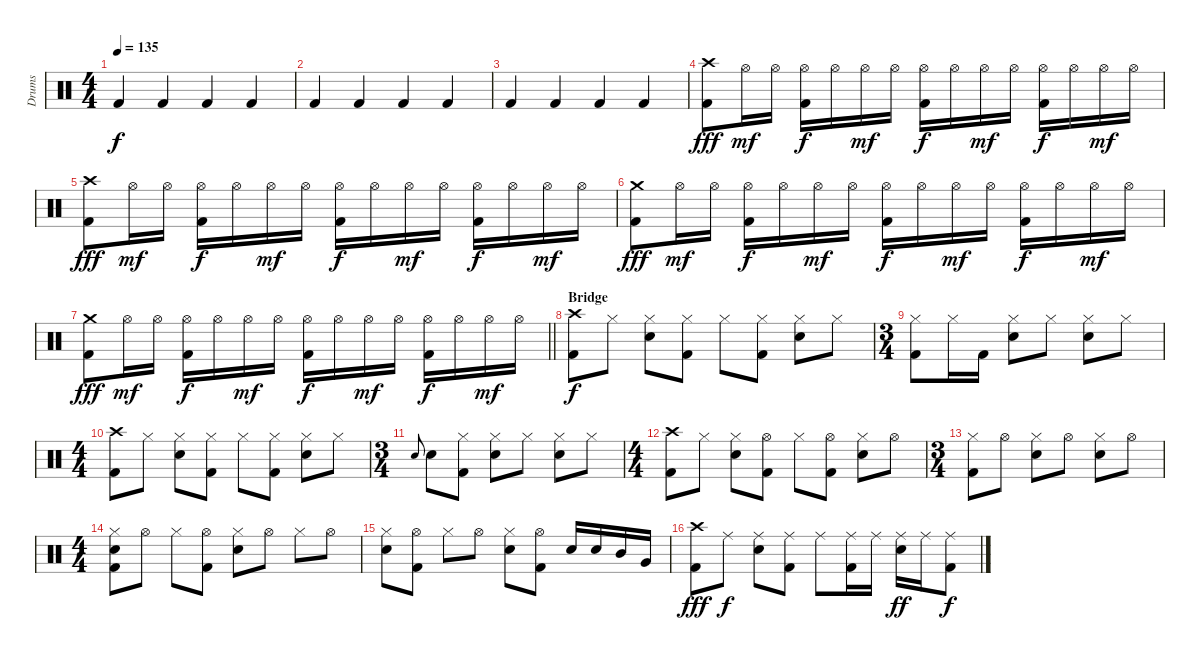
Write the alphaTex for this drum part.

\track ("Drums" "Drums") {instrument percussion}
\staff {score}
\articulation defaults
\ts (4 4)
\tempo 135
\clef neutral
\ks c "Kick (hit) 2".4{dy f} "Kick (hit) 2".4 "Kick (hit) 2".4 "Kick (hit) 2".4
|
"Kick (hit) 2".4 "Kick (hit) 2".4 "Kick (hit) 2".4 "Kick (hit) 2".4 |
"Kick (hit) 2".4 "Kick (hit) 2".4 "Kick (hit) 2".4 "Kick (hit) 2".4 |
("Crash high (hit)" "Kick (hit) 2").8{dy fff} "Hi-Hat (open)".16{dy mf} "Hi-Hat (open)".16 ("Hi-Hat (open)" "Kick (hit) 2").16{dy f} "Hi-Hat (open)".16 "Hi-Hat (open)".16{dy mf} "Hi-Hat (open)".16 ("Hi-Hat (open)" "Kick (hit) 2").16{dy f} "Hi-Hat (open)".16 "Hi-Hat (open)".16{dy mf} "Hi-Hat (open)".16 ("Hi-Hat (open)" "Kick (hit) 2").16{dy f} "Hi-Hat (open)".16 "Hi-Hat (open)".16{dy mf} "Hi-Hat (open)".16 |
("Crash high (hit)" "Kick (hit) 2").8{dy fff} "Hi-Hat (open)".16{dy mf} "Hi-Hat (open)".16 ("Hi-Hat (open)" "Kick (hit) 2").16{dy f} "Hi-Hat (open)".16 "Hi-Hat (open)".16{dy mf} "Hi-Hat (open)".16 ("Hi-Hat (open)" "Kick (hit) 2").16{dy f} "Hi-Hat (open)".16 "Hi-Hat (open)".16{dy mf} "Hi-Hat (open)".16 ("Hi-Hat (open)" "Kick (hit) 2").16{dy f} "Hi-Hat (open)".16 "Hi-Hat (open)".16{dy mf} "Hi-Hat (open)".16 |
("Crash medium (hit)" "Kick (hit) 2").8{dy fff} "Hi-Hat (open)".16{dy mf} "Hi-Hat (open)".16 ("Hi-Hat (open)" "Kick (hit) 2").16{dy f} "Hi-Hat (open)".16 "Hi-Hat (open)".16{dy mf} "Hi-Hat (open)".16 ("Hi-Hat (open)" "Kick (hit) 2").16{dy f} "Hi-Hat (open)".16 "Hi-Hat (open)".16{dy mf} "Hi-Hat (open)".16 ("Hi-Hat (open)" "Kick (hit) 2").16{dy f} "Hi-Hat (open)".16 "Hi-Hat (open)".16{dy mf} "Hi-Hat (open)".16 |
\barLineRight lightlight
("Crash medium (hit)" "Kick (hit) 2").8{dy fff} "Hi-Hat (open)".16{dy mf} "Hi-Hat (open)".16 ("Hi-Hat (open)" "Kick (hit) 2").16{dy f} "Hi-Hat (open)".16 "Hi-Hat (open)".16{dy mf} "Hi-Hat (open)".16 ("Hi-Hat (open)" "Kick (hit) 2").16{dy f} "Hi-Hat (open)".16 "Hi-Hat (open)".16{dy mf} "Hi-Hat (open)".16 ("Hi-Hat (open)" "Kick (hit) 2").16{dy f} "Hi-Hat (open)".16 "Hi-Hat (open)".16{dy mf} "Hi-Hat (open)".16 |
\section ("" "Bridge")
("Crash high (hit)" "Kick (hit) 2").8{dy f} "Hi-Hat (closed)".8 ("Hi-Hat (closed)" "Snare (hit) 2").8 ("Hi-Hat (closed)" "Kick (hit) 2").8 "Hi-Hat (closed)".8 ("Hi-Hat (closed)" "Kick (hit) 2").8 ("Hi-Hat (closed)" "Snare (hit) 2").8 "Hi-Hat (closed)".8 |
\ts (3 4)
("Hi-Hat (closed)" "Kick (hit) 2").8 "Hi-Hat (closed)".16 "Kick (hit) 2".16 ("Hi-Hat (closed)" "Snare (hit) 2").8 "Hi-Hat (closed)".8 ("Hi-Hat (closed)" "Snare (hit) 2").8 "Hi-Hat (closed)".8 |
\ts (4 4)
("Crash high (hit)" "Kick (hit) 2").8 "Hi-Hat (closed)".8 ("Hi-Hat (closed)" "Snare (hit) 2").8 ("Hi-Hat (closed)" "Kick (hit) 2").8 "Hi-Hat (closed)".8 ("Hi-Hat (closed)" "Kick (hit) 2").8 ("Hi-Hat (closed)" "Snare (hit) 2").8 "Hi-Hat (closed)".8 |
\ts (3 4)
"Snare (hit) 2".8{gr onbeat} "Snare (hit) 2".8 ("Hi-Hat (closed)" "Kick (hit) 2").8 ("Hi-Hat (closed)" "Snare (hit) 2").8 "Hi-Hat (closed)".8 ("Hi-Hat (closed)" "Snare (hit) 2").8 "Hi-Hat (closed)".8 |
\ts (4 4)
("Crash high (hit)" "Kick (hit) 2").8 "Hi-Hat (closed)".8 ("Hi-Hat (closed)" "Snare (hit) 2").8 ("Hi-Hat (open)" "Kick (hit) 2").8 "Hi-Hat (closed)".8 ("Hi-Hat (open)" "Kick (hit) 2").8 ("Hi-Hat (closed)" "Snare (hit) 2").8 "Hi-Hat (open)".8 |
\ts (3 4)
("Hi-Hat (closed)" "Kick (hit) 2").8 "Hi-Hat (open)".8 ("Hi-Hat (closed)" "Snare (hit) 2").8 "Hi-Hat (open)".8 ("Hi-Hat (closed)" "Snare (hit) 2").8 "Hi-Hat (open)".8 |
\ts (4 4)
("Hi-Hat (closed)" "Snare (hit) 2" "Kick (hit) 2").8 "Hi-Hat (open)".8 "Hi-Hat (closed)".8 ("Hi-Hat (open)" "Kick (hit) 2").8 ("Hi-Hat (closed)" "Snare (hit) 2").8 "Hi-Hat (open)".8 "Hi-Hat (closed)".8 "Hi-Hat (open)".8 |
("Hi-Hat (closed)" "Snare (hit) 2").8 ("Hi-Hat (open)" "Kick (hit) 2").8 "Hi-Hat (closed)".8 "Hi-Hat (open)".8 ("Hi-Hat (closed)" "Snare (hit) 2").8 ("Hi-Hat (open)" "Kick (hit) 2").8 "Snare (hit) 2".16 "Snare (hit) 2".16 "Mid Tom (hit)".16 "Very Low Tom (hit)".16 |
("Crash high (hit)" "Kick (hit) 2").8{dy fff} "Ride (middle)".8{dy f} ("Ride (middle)" "Snare (hit) 2").8 ("Ride (middle)" "Kick (hit) 2").8 "Ride (middle)".8 ("Ride (middle)" "Kick (hit) 2").16 "Ride (middle)".16 ("Ride (middle)" "Snare (hit) 2").16{dy ff} "Ride (middle)".16 ("Ride (middle)" "Kick (hit) 2").8{dy f}
